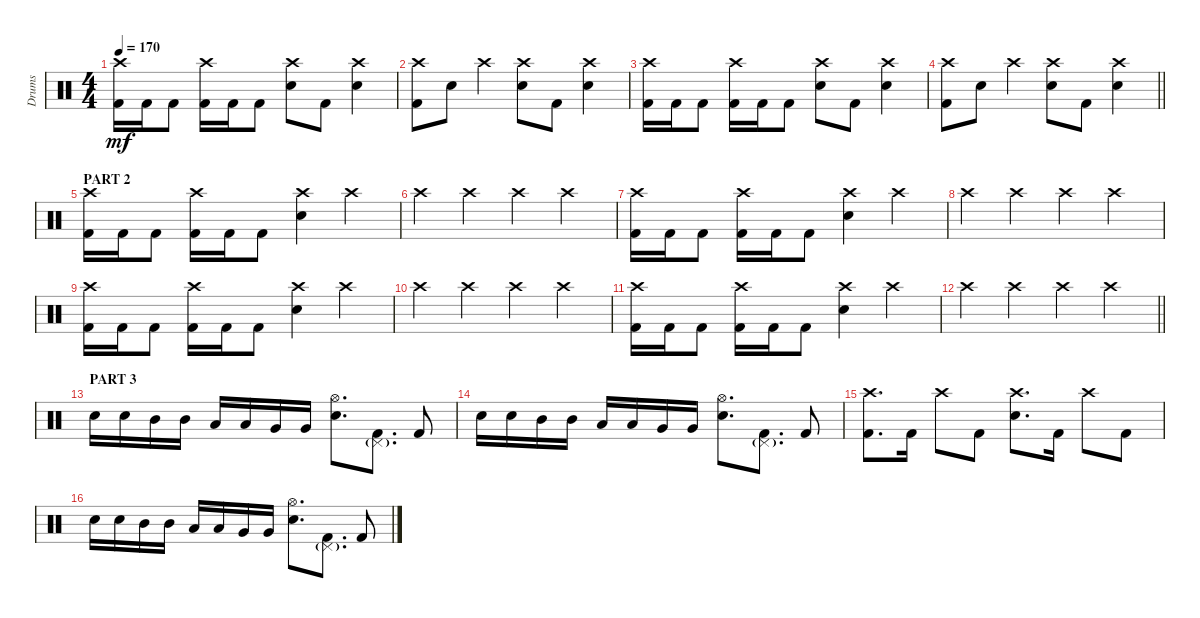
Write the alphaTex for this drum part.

\track ("Drums" "Drums") {instrument percussion}
\staff
\articulation defaults
\ts (4 4)
\tempo 170
\clef neutral
\ks c
("Crash high (hit)" "Kick (hit) 2").16{dy mf} "Kick (hit) 2".16 "Kick (hit) 2".8 ("Crash high (hit)" "Kick (hit) 2").16 "Kick (hit) 2".16 "Kick (hit) 2".8 ("Crash high (hit)" "Electric Snare (hit)").8 "Kick (hit) 2".8 ("Crash high (hit)" "Electric Snare (hit)").4 |
("Crash high (hit)" "Kick (hit) 2").8 "Electric Snare (hit)".8 "Crash high (hit)".4 ("Crash high (hit)" "Electric Snare (hit)").8 "Kick (hit) 2".8 ("Crash high (hit)" "Electric Snare (hit)").4 |
("Crash high (hit)" "Kick (hit) 2").16 "Kick (hit) 2".16 "Kick (hit) 2".8 ("Crash high (hit)" "Kick (hit) 2").16 "Kick (hit) 2".16 "Kick (hit) 2".8 ("Crash high (hit)" "Electric Snare (hit)").8 "Kick (hit) 2".8 ("Crash high (hit)" "Electric Snare (hit)").4 |
\barLineRight lightlight
("Crash high (hit)" "Kick (hit) 2").8 "Electric Snare (hit)".8 "Crash high (hit)".4 ("Crash high (hit)" "Electric Snare (hit)").8 "Kick (hit) 2".8 ("Crash high (hit)" "Electric Snare (hit)").4 |
\section ("" "PART 2")
("Crash high (hit)" "Kick (hit) 2").16 "Kick (hit) 2".16 "Kick (hit) 2".8 ("Crash high (hit)" "Kick (hit) 2").16 "Kick (hit) 2".16 "Kick (hit) 2".8 ("Crash high (hit)" "Electric Snare (hit)").4 "Crash high (hit)".4 |
"Crash high (hit)".4 "Crash high (hit)".4 "Crash high (hit)".4 "Crash high (hit)".4 |
("Crash high (hit)" "Kick (hit) 2").16 "Kick (hit) 2".16 "Kick (hit) 2".8 ("Crash high (hit)" "Kick (hit) 2").16 "Kick (hit) 2".16 "Kick (hit) 2".8 ("Crash high (hit)" "Electric Snare (hit)").4 "Crash high (hit)".4 |
"Crash high (hit)".4 "Crash high (hit)".4 "Crash high (hit)".4 "Crash high (hit)".4 |
("Crash high (hit)" "Kick (hit) 2").16 "Kick (hit) 2".16 "Kick (hit) 2".8 ("Crash high (hit)" "Kick (hit) 2").16 "Kick (hit) 2".16 "Kick (hit) 2".8 ("Crash high (hit)" "Electric Snare (hit)").4 "Crash high (hit)".4 |
"Crash high (hit)".4 "Crash high (hit)".4 "Crash high (hit)".4 "Crash high (hit)".4 |
("Crash high (hit)" "Kick (hit) 2").16 "Kick (hit) 2".16 "Kick (hit) 2".8 ("Crash high (hit)" "Kick (hit) 2").16 "Kick (hit) 2".16 "Kick (hit) 2".8 ("Crash high (hit)" "Electric Snare (hit)").4 "Crash high (hit)".4 |
\barLineRight lightlight "Crash high (hit)".4 "Crash high (hit)".4 "Crash high (hit)".4 "Crash high (hit)".4
|
\section ("" "PART 3")
"Electric Snare (hit)".16 "Electric Snare (hit)".16 "Mid Tom (hit)".16 "Mid Tom (hit)".16 "Low Tom (hit)".16 "Low Tom (hit)".16 "Very Low Tom (hit)".16 "Very Low Tom (hit)".16 ("Hi-Hat (open)" "Electric Snare (hit)").8{d} ("Pedal Hi-Hat (hit)"{g} "Kick (hit) 2").8{d} "Kick (hit) 2".8 |
"Electric Snare (hit)".16 "Electric Snare (hit)".16 "Mid Tom (hit)".16 "Mid Tom (hit)".16 "Low Tom (hit)".16 "Low Tom (hit)".16 "Very Low Tom (hit)".16 "Very Low Tom (hit)".16 ("Hi-Hat (open)" "Electric Snare (hit)").8{d} ("Pedal Hi-Hat (hit)"{g} "Kick (hit) 2").8{d} "Kick (hit) 2".8 |
("Crash high (hit)" "Kick (hit) 2").8{d} "Kick (hit) 2".16 "Crash high (hit)".8 "Kick (hit) 2".8 ("Crash high (hit)" "Electric Snare (hit)").8{d} "Kick (hit) 2".16 "Crash high (hit)".8 "Kick (hit) 2".8 |
"Electric Snare (hit)".16 "Electric Snare (hit)".16 "Mid Tom (hit)".16 "Mid Tom (hit)".16 "Low Tom (hit)".16 "Low Tom (hit)".16 "Very Low Tom (hit)".16 "Very Low Tom (hit)".16 ("Hi-Hat (open)" "Electric Snare (hit)").8{d} ("Pedal Hi-Hat (hit)"{g} "Kick (hit) 2").8{d} "Kick (hit) 2".8
